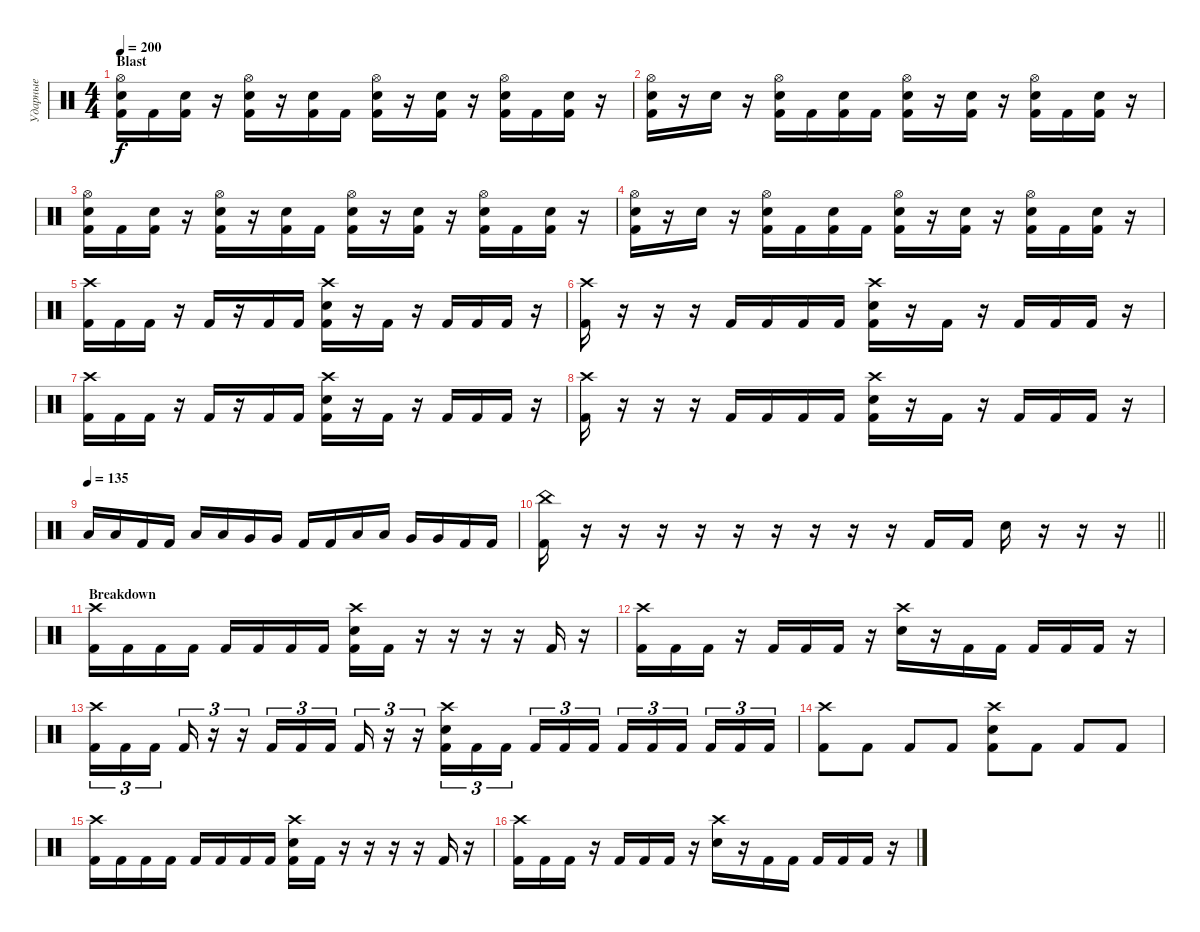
\track ("Ударные" "Ударные") {instrument percussion}
\staff {score}
\articulation defaults
\ts (4 4)
\section ("" "Blast")
\tempo 200
\clef neutral
\ks c
("Hi-Hat (open)" "Electric Snare (hit)" "Kick (hit) 2").16{dy f} "Kick (hit) 2".16 ("Electric Snare (hit)" "Kick (hit) 2").16 r.16 ("Hi-Hat (open)" "Electric Snare (hit)" "Kick (hit) 2").16 r.16 ("Electric Snare (hit)" "Kick (hit) 2").16 "Kick (hit) 2".16 ("Hi-Hat (open)" "Electric Snare (hit)" "Kick (hit) 2").16 r.16 ("Electric Snare (hit)" "Kick (hit) 2").16 r.16 ("Hi-Hat (open)" "Electric Snare (hit)" "Kick (hit) 2").16 "Kick (hit) 2".16 ("Electric Snare (hit)" "Kick (hit) 2").16 r.16 |
("Hi-Hat (open)" "Electric Snare (hit)" "Kick (hit) 2").16 r.16 "Electric Snare (hit)".16 r.16 ("Hi-Hat (open)" "Electric Snare (hit)" "Kick (hit) 2").16 "Kick (hit) 2".16 ("Electric Snare (hit)" "Kick (hit) 2").16 "Kick (hit) 2".16 ("Hi-Hat (open)" "Electric Snare (hit)" "Kick (hit) 2").16 r.16 ("Electric Snare (hit)" "Kick (hit) 2").16 r.16 ("Hi-Hat (open)" "Electric Snare (hit)" "Kick (hit) 2").16 "Kick (hit) 2".16 ("Electric Snare (hit)" "Kick (hit) 2").16 r.16 |
("Hi-Hat (open)" "Electric Snare (hit)" "Kick (hit) 2").16 "Kick (hit) 2".16 ("Electric Snare (hit)" "Kick (hit) 2").16 r.16 ("Hi-Hat (open)" "Electric Snare (hit)" "Kick (hit) 2").16 r.16 ("Electric Snare (hit)" "Kick (hit) 2").16 "Kick (hit) 2".16 ("Hi-Hat (open)" "Electric Snare (hit)" "Kick (hit) 2").16 r.16 ("Electric Snare (hit)" "Kick (hit) 2").16 r.16 ("Hi-Hat (open)" "Electric Snare (hit)" "Kick (hit) 2").16 "Kick (hit) 2".16 ("Electric Snare (hit)" "Kick (hit) 2").16 r.16 |
("Hi-Hat (open)" "Electric Snare (hit)" "Kick (hit) 2").16 r.16 "Electric Snare (hit)".16 r.16 ("Hi-Hat (open)" "Electric Snare (hit)" "Kick (hit) 2").16 "Kick (hit) 2".16 ("Electric Snare (hit)" "Kick (hit) 2").16 "Kick (hit) 2".16 ("Hi-Hat (open)" "Electric Snare (hit)" "Kick (hit) 2").16 r.16 ("Electric Snare (hit)" "Kick (hit) 2").16 r.16 ("Hi-Hat (open)" "Electric Snare (hit)" "Kick (hit) 2").16 "Kick (hit) 2".16 ("Electric Snare (hit)" "Kick (hit) 2").16 r.16 |
("Crash high (hit)" "Kick (hit) 2").16 "Kick (hit) 2".16 "Kick (hit) 2".16 r.16 "Kick (hit) 2".16 r.16 "Kick (hit) 2".16 "Kick (hit) 2".16 ("Crash high (hit)" "Electric Snare (hit)" "Kick (hit) 2").16 r.16 "Kick (hit) 2".16 r.16 "Kick (hit) 2".16 "Kick (hit) 2".16 "Kick (hit) 2".16 r.16 |
("Crash high (hit)" "Kick (hit) 2").16 r.16 r.16 r.16 "Kick (hit) 2".16 "Kick (hit) 2".16 "Kick (hit) 2".16 "Kick (hit) 2".16 ("Crash high (hit)" "Electric Snare (hit)" "Kick (hit) 2").16 r.16 "Kick (hit) 2".16 r.16 "Kick (hit) 2".16 "Kick (hit) 2".16 "Kick (hit) 2".16 r.16 |
("Crash high (hit)" "Kick (hit) 2").16 "Kick (hit) 2".16 "Kick (hit) 2".16 r.16 "Kick (hit) 2".16 r.16 "Kick (hit) 2".16 "Kick (hit) 2".16 ("Crash high (hit)" "Electric Snare (hit)" "Kick (hit) 2").16 r.16 "Kick (hit) 2".16 r.16 "Kick (hit) 2".16 "Kick (hit) 2".16 "Kick (hit) 2".16 r.16 |
("Crash high (hit)" "Kick (hit) 2").16 r.16 r.16 r.16 "Kick (hit) 2".16 "Kick (hit) 2".16 "Kick (hit) 2".16 "Kick (hit) 2".16 ("Crash high (hit)" "Electric Snare (hit)" "Kick (hit) 2").16 r.16 "Kick (hit) 2".16 r.16 "Kick (hit) 2".16 "Kick (hit) 2".16 "Kick (hit) 2".16 r.16 |
\tempo (135)
"Low Tom (hit)".16 "Low Tom (hit)".16 "Kick (hit) 2".16 "Kick (hit) 2".16 "Low Tom (hit)".16 "Low Tom (hit)".16 "Very Low Tom (hit)".16 "Very Low Tom (hit)".16 "Kick (hit) 2".16 "Kick (hit) 2".16 "Low Tom (hit)".16 "Low Tom (hit)".16 "Very Low Tom (hit)".16 "Very Low Tom (hit)".16 "Kick (hit) 2".16 "Kick (hit) 2".16 |
\barLineRight lightlight
("China (hit)" "Kick (hit) 2").16 r.16 r.16 r.16 r.16 r.16 r.16 r.16 r.16 r.16 "Kick (hit) 2".16 "Kick (hit) 2".16 "Electric Snare (hit)".16 r.16 r.16 r.16 |
\section ("" "Breakdown")
("Crash high (hit)" "Kick (hit) 2").16 "Kick (hit) 2".16 "Kick (hit) 2".16 "Kick (hit) 2".16 "Kick (hit) 2".16 "Kick (hit) 2".16 "Kick (hit) 2".16 "Kick (hit) 2".16 ("Crash high (hit)" "Electric Snare (hit)" "Kick (hit) 2").16 "Kick (hit) 2".16 r.16 r.16 r.16 r.16 "Kick (hit) 2".16 r.16 |
("Crash high (hit)" "Kick (hit) 2").16 "Kick (hit) 2".16 "Kick (hit) 2".16 r.16 "Kick (hit) 2".16 "Kick (hit) 2".16 "Kick (hit) 2".16 r.16 ("Crash high (hit)" "Electric Snare (hit)").16 r.16 "Kick (hit) 2".16 "Kick (hit) 2".16 "Kick (hit) 2".16 "Kick (hit) 2".16 "Kick (hit) 2".16 r.16 |
("Crash high (hit)" "Kick (hit) 2").16{tu (3 2)} "Kick (hit) 2".16{tu (3 2)} "Kick (hit) 2".16{tu (3 2) beam splitsecondary} "Kick (hit) 2".16{tu (3 2)} r.16{tu (3 2)} r.16{tu (3 2)} "Kick (hit) 2".16{tu (3 2)} "Kick (hit) 2".16{tu (3 2)} "Kick (hit) 2".16{tu (3 2) beam splitsecondary} "Kick (hit) 2".16{tu (3 2)} r.16{tu (3 2)} r.16{tu (3 2)} ("Crash high (hit)" "Electric Snare (hit)" "Kick (hit) 2").16{tu (3 2)} "Kick (hit) 2".16{tu (3 2)} "Kick (hit) 2".16{tu (3 2) beam splitsecondary} "Kick (hit) 2".16{tu (3 2)} "Kick (hit) 2".16{tu (3 2)} "Kick (hit) 2".16{tu (3 2)} "Kick (hit) 2".16{tu (3 2)} "Kick (hit) 2".16{tu (3 2)} "Kick (hit) 2".16{tu (3 2) beam splitsecondary} "Kick (hit) 2".16{tu (3 2)} "Kick (hit) 2".16{tu (3 2)} "Kick (hit) 2".16{tu (3 2)} |
("Crash high (hit)" "Kick (hit) 2").8 "Kick (hit) 2".8 "Kick (hit) 2".8 "Kick (hit) 2".8 ("Crash high (hit)" "Electric Snare (hit)" "Kick (hit) 2").8 "Kick (hit) 2".8 "Kick (hit) 2".8 "Kick (hit) 2".8 |
("Crash high (hit)" "Kick (hit) 2").16 "Kick (hit) 2".16 "Kick (hit) 2".16 "Kick (hit) 2".16 "Kick (hit) 2".16 "Kick (hit) 2".16 "Kick (hit) 2".16 "Kick (hit) 2".16 ("Crash high (hit)" "Electric Snare (hit)" "Kick (hit) 2").16 "Kick (hit) 2".16 r.16 r.16 r.16 r.16 "Kick (hit) 2".16 r.16 |
("Crash high (hit)" "Kick (hit) 2").16 "Kick (hit) 2".16 "Kick (hit) 2".16 r.16 "Kick (hit) 2".16 "Kick (hit) 2".16 "Kick (hit) 2".16 r.16 ("Crash high (hit)" "Electric Snare (hit)").16 r.16 "Kick (hit) 2".16 "Kick (hit) 2".16 "Kick (hit) 2".16 "Kick (hit) 2".16 "Kick (hit) 2".16 r.16
